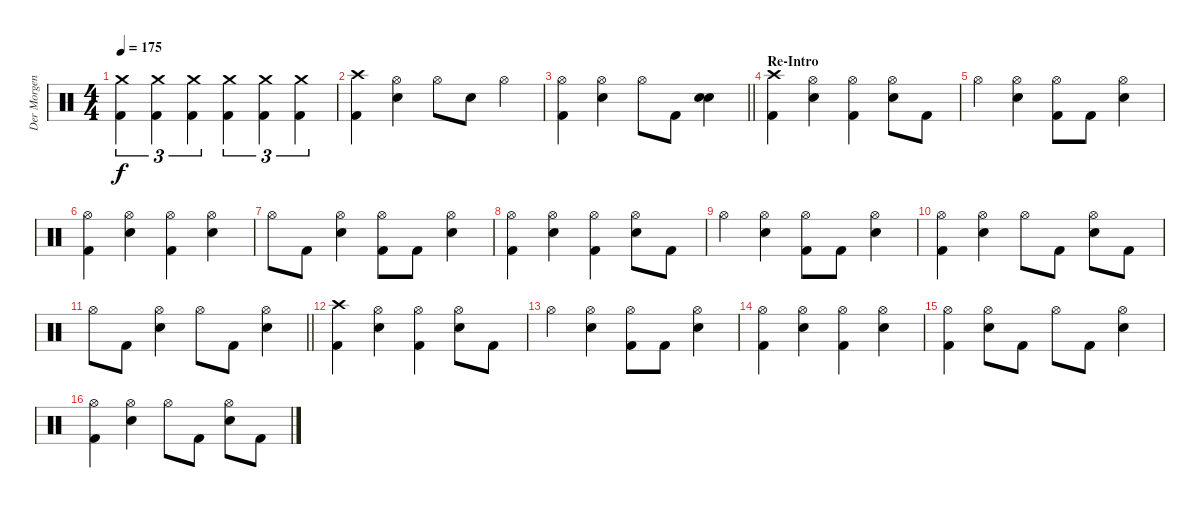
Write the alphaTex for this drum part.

\track ("Der Morgenstern" "Der Morgen") {instrument percussion}
\staff {score}
\articulation defaults
\ts (4 4)
\tempo 175
\clef neutral
\ks c
("Crash medium (hit)" "Kick (hit) 2").4{tu (3 2) dy f} ("Crash medium (hit)" "Kick (hit) 2").4{tu (3 2)} ("Crash medium (hit)" "Kick (hit) 2").4{tu (3 2)} ("Crash medium (hit)" "Kick (hit) 2").4{tu (3 2)} ("Crash medium (hit)" "Kick (hit) 2").4{tu (3 2)} ("Crash medium (hit)" "Kick (hit) 2").4{tu (3 2)} |
("Crash high (hit)" "Kick (hit) 2").4 ("Hi-Hat (open)" "Electric Snare (hit)").4 "Hi-Hat (open)".8 "Electric Snare (hit)".8 "Hi-Hat (open)".4 |
\barLineRight lightlight
("Hi-Hat (open)" "Kick (hit) 2").4 ("Hi-Hat (open)" "Electric Snare (hit)").4 "Hi-Hat (open)".8 "Kick (hit) 2".8 ("Electric Snare (hit)" "Electric Snare (hit)").4 |
\section ("" "Re-Intro")
("Crash high (hit)" "Kick (hit) 2").4 ("Hi-Hat (open)" "Electric Snare (hit)").4 ("Hi-Hat (open)" "Kick (hit) 2").4 ("Hi-Hat (open)" "Electric Snare (hit)").8 "Kick (hit) 2".8 |
"Hi-Hat (open)".4 ("Hi-Hat (open)" "Electric Snare (hit)").4 ("Hi-Hat (open)" "Kick (hit) 2").8 "Kick (hit) 2".8 ("Hi-Hat (open)" "Electric Snare (hit)").4 |
("Hi-Hat (open)" "Kick (hit) 2").4 ("Hi-Hat (open)" "Electric Snare (hit)").4 ("Hi-Hat (open)" "Kick (hit) 2").4 ("Hi-Hat (open)" "Electric Snare (hit)").4 |
"Hi-Hat (open)".8 "Kick (hit) 2".8 ("Hi-Hat (open)" "Electric Snare (hit)").4 ("Hi-Hat (open)" "Kick (hit) 2").8 "Kick (hit) 2".8 ("Hi-Hat (open)" "Electric Snare (hit)").4 |
("Hi-Hat (open)" "Kick (hit) 2").4 ("Hi-Hat (open)" "Electric Snare (hit)").4 ("Hi-Hat (open)" "Kick (hit) 2").4 ("Hi-Hat (open)" "Electric Snare (hit)").8 "Kick (hit) 2".8 |
"Hi-Hat (open)".4 ("Hi-Hat (open)" "Electric Snare (hit)").4 ("Hi-Hat (open)" "Kick (hit) 2").8 "Kick (hit) 2".8 ("Hi-Hat (open)" "Electric Snare (hit)").4 |
("Hi-Hat (open)" "Kick (hit) 2").4 ("Hi-Hat (open)" "Electric Snare (hit)").4 "Hi-Hat (open)".8 "Kick (hit) 2".8 ("Hi-Hat (open)" "Electric Snare (hit)").8 "Kick (hit) 2".8 |
\barLineRight lightlight "Hi-Hat (open)".8 "Kick (hit) 2".8
("Hi-Hat (open)" "Electric Snare (hit)").4 "Hi-Hat (open)".8 "Kick (hit) 2".8 ("Hi-Hat (open)" "Electric Snare (hit)").4 |
("Crash high (hit)" "Kick (hit) 2").4 ("Hi-Hat (open)" "Electric Snare (hit)").4 ("Hi-Hat (open)" "Kick (hit) 2").4 ("Hi-Hat (open)" "Electric Snare (hit)").8 "Kick (hit) 2".8 |
"Hi-Hat (open)".4 ("Hi-Hat (open)" "Electric Snare (hit)").4 ("Hi-Hat (open)" "Kick (hit) 2").8 "Kick (hit) 2".8 ("Hi-Hat (open)" "Electric Snare (hit)").4 |
("Hi-Hat (open)" "Kick (hit) 2").4 ("Hi-Hat (open)" "Electric Snare (hit)").4 ("Hi-Hat (open)" "Kick (hit) 2").4 ("Hi-Hat (open)" "Electric Snare (hit)").4 |
("Hi-Hat (open)" "Kick (hit) 2").4 ("Hi-Hat (open)" "Electric Snare (hit)").8 "Kick (hit) 2".8 "Hi-Hat (open)".8 "Kick (hit) 2".8 ("Hi-Hat (open)" "Electric Snare (hit)").4 |
("Hi-Hat (open)" "Kick (hit) 2").4 ("Hi-Hat (open)" "Electric Snare (hit)").4 "Hi-Hat (open)".8 "Kick (hit) 2".8 ("Hi-Hat (open)" "Electric Snare (hit)").8 "Kick (hit) 2".8
